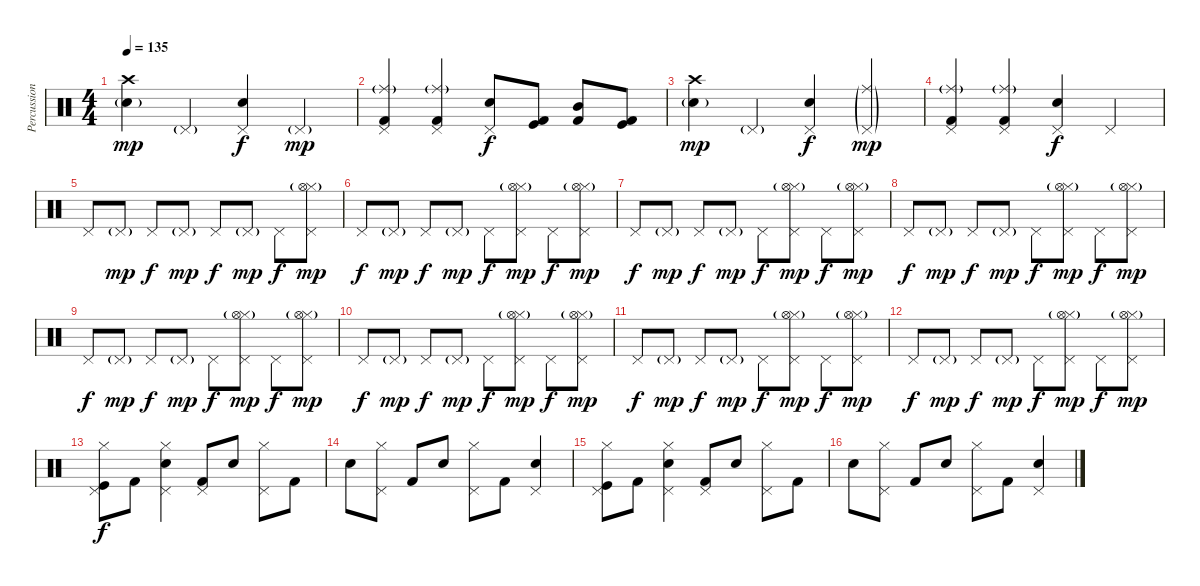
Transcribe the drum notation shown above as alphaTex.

\track ("Percussion" "Percussion") {instrument percussion}
\staff {score}
\articulation defaults
\ts (4 4)
\tempo 135
\clef neutral
\ks c
("Crash high (hit)" "Electric Snare (hit)"{g}).4{dy mp} "Pedal Hi-Hat (hit)"{g}.4 ("Pedal Hi-Hat (hit)" "Electric Snare (hit)").4{dy f} "Pedal Hi-Hat (hit)"{g}.4{dy mp} |
("Pedal Hi-Hat (hit)" "Kick (hit) 2" "Ride (middle)"{g}).4 ("Pedal Hi-Hat (hit)" "Kick (hit) 2" "Ride (middle)"{g}).4 ("Pedal Hi-Hat (hit)" "Electric Snare (hit)").8{dy f} ("Kick (hit) 2" "Kick (hit)").8 ("Kick (hit) 2" "Mid Tom (hit)").8 ("Kick (hit) 2" "Kick (hit)").8 |
("Crash high (hit)" "Electric Snare (hit)"{g}).4{dy mp} "Pedal Hi-Hat (hit)"{g}.4 ("Pedal Hi-Hat (hit)" "Electric Snare (hit)").4{dy f} ("Pedal Hi-Hat (hit)"{g} "Ride (middle)"{g}).4{dy mp} |
("Pedal Hi-Hat (hit)" "Kick (hit) 2" "Ride (middle)"{g}).4 ("Pedal Hi-Hat (hit)" "Kick (hit) 2" "Ride (middle)"{g}).4 ("Pedal Hi-Hat (hit)" "Electric Snare (hit)").4{dy f} "Pedal Hi-Hat (hit)".4 |
"Pedal Hi-Hat (hit)".8 "Pedal Hi-Hat (hit)"{g}.8{dy mp} "Pedal Hi-Hat (hit)".8{dy f} "Pedal Hi-Hat (hit)"{g}.8{dy mp} "Pedal Hi-Hat (hit)".8{dy f} "Pedal Hi-Hat (hit)"{g}.8{dy mp} "Pedal Hi-Hat (hit)".8{dy f} ("Pedal Hi-Hat (hit)" "Hi-Hat (closed)" "Hi-Hat (open)"{g}).8{dy mp} |
"Pedal Hi-Hat (hit)".8{dy f} "Pedal Hi-Hat (hit)"{g}.8{dy mp} "Pedal Hi-Hat (hit)".8{dy f} "Pedal Hi-Hat (hit)"{g}.8{dy mp} "Pedal Hi-Hat (hit)".8{dy f} ("Pedal Hi-Hat (hit)" "Hi-Hat (closed)" "Hi-Hat (open)"{g}).8{dy mp} "Pedal Hi-Hat (hit)".8{dy f} ("Pedal Hi-Hat (hit)" "Hi-Hat (closed)" "Hi-Hat (open)"{g}).8{dy mp} |
"Pedal Hi-Hat (hit)".8{dy f} "Pedal Hi-Hat (hit)"{g}.8{dy mp} "Pedal Hi-Hat (hit)".8{dy f} "Pedal Hi-Hat (hit)"{g}.8{dy mp} "Pedal Hi-Hat (hit)".8{dy f} ("Pedal Hi-Hat (hit)" "Hi-Hat (closed)" "Hi-Hat (open)"{g}).8{dy mp} "Pedal Hi-Hat (hit)".8{dy f} ("Pedal Hi-Hat (hit)" "Hi-Hat (closed)" "Hi-Hat (open)"{g}).8{dy mp} |
"Pedal Hi-Hat (hit)".8{dy f} "Pedal Hi-Hat (hit)"{g}.8{dy mp} "Pedal Hi-Hat (hit)".8{dy f} "Pedal Hi-Hat (hit)"{g}.8{dy mp} "Pedal Hi-Hat (hit)".8{dy f} ("Pedal Hi-Hat (hit)" "Hi-Hat (closed)" "Hi-Hat (open)"{g}).8{dy mp} "Pedal Hi-Hat (hit)".8{dy f} ("Pedal Hi-Hat (hit)" "Hi-Hat (closed)" "Hi-Hat (open)"{g}).8{dy mp} |
"Pedal Hi-Hat (hit)".8{dy f} "Pedal Hi-Hat (hit)"{g}.8{dy mp} "Pedal Hi-Hat (hit)".8{dy f} "Pedal Hi-Hat (hit)"{g}.8{dy mp} "Pedal Hi-Hat (hit)".8{dy f} ("Pedal Hi-Hat (hit)" "Hi-Hat (closed)" "Hi-Hat (open)"{g}).8{dy mp} "Pedal Hi-Hat (hit)".8{dy f} ("Pedal Hi-Hat (hit)" "Hi-Hat (closed)" "Hi-Hat (open)"{g}).8{dy mp} |
"Pedal Hi-Hat (hit)".8{dy f} "Pedal Hi-Hat (hit)"{g}.8{dy mp} "Pedal Hi-Hat (hit)".8{dy f} "Pedal Hi-Hat (hit)"{g}.8{dy mp} "Pedal Hi-Hat (hit)".8{dy f} ("Pedal Hi-Hat (hit)" "Hi-Hat (closed)" "Hi-Hat (open)"{g}).8{dy mp} "Pedal Hi-Hat (hit)".8{dy f} ("Pedal Hi-Hat (hit)" "Hi-Hat (closed)" "Hi-Hat (open)"{g}).8{dy mp} |
"Pedal Hi-Hat (hit)".8{dy f} "Pedal Hi-Hat (hit)"{g}.8{dy mp} "Pedal Hi-Hat (hit)".8{dy f} "Pedal Hi-Hat (hit)"{g}.8{dy mp} "Pedal Hi-Hat (hit)".8{dy f} ("Pedal Hi-Hat (hit)" "Hi-Hat (closed)" "Hi-Hat (open)"{g}).8{dy mp} "Pedal Hi-Hat (hit)".8{dy f} ("Pedal Hi-Hat (hit)" "Hi-Hat (closed)" "Hi-Hat (open)"{g}).8{dy mp} |
"Pedal Hi-Hat (hit)".8{dy f} "Pedal Hi-Hat (hit)"{g}.8{dy mp} "Pedal Hi-Hat (hit)".8{dy f} "Pedal Hi-Hat (hit)"{g}.8{dy mp} "Pedal Hi-Hat (hit)".8{dy f} ("Pedal Hi-Hat (hit)" "Hi-Hat (closed)" "Hi-Hat (open)"{g}).8{dy mp} "Pedal Hi-Hat (hit)".8{dy f} ("Pedal Hi-Hat (hit)" "Hi-Hat (closed)" "Hi-Hat (open)"{g}).8{dy mp} |
("Kick (hit)" "Pedal Hi-Hat (hit)" "Hi-Hat (closed)").8{dy f} "Kick (hit) 2".8 ("Electric Snare (hit)" "Pedal Hi-Hat (hit)" "Hi-Hat (closed)").4 ("Kick (hit) 2" "Pedal Hi-Hat (hit)").8 "Electric Snare (hit)".8 ("Pedal Hi-Hat (hit)" "Hi-Hat (closed)").8 "Kick (hit) 2".8 |
"Electric Snare (hit)".8 ("Pedal Hi-Hat (hit)" "Hi-Hat (closed)").8 "Kick (hit) 2".8 "Electric Snare (hit)".8 ("Pedal Hi-Hat (hit)" "Hi-Hat (closed)").8 "Kick (hit) 2".8 ("Electric Snare (hit)" "Pedal Hi-Hat (hit)").4 |
("Kick (hit)" "Pedal Hi-Hat (hit)" "Hi-Hat (closed)").8 "Kick (hit) 2".8 ("Electric Snare (hit)" "Pedal Hi-Hat (hit)" "Hi-Hat (closed)").4 ("Kick (hit) 2" "Pedal Hi-Hat (hit)").8 "Electric Snare (hit)".8 ("Pedal Hi-Hat (hit)" "Hi-Hat (closed)").8 "Kick (hit) 2".8 |
"Electric Snare (hit)".8 ("Pedal Hi-Hat (hit)" "Hi-Hat (closed)").8 "Kick (hit) 2".8 "Electric Snare (hit)".8 ("Pedal Hi-Hat (hit)" "Hi-Hat (closed)").8 "Kick (hit) 2".8 ("Electric Snare (hit)" "Pedal Hi-Hat (hit)").4
